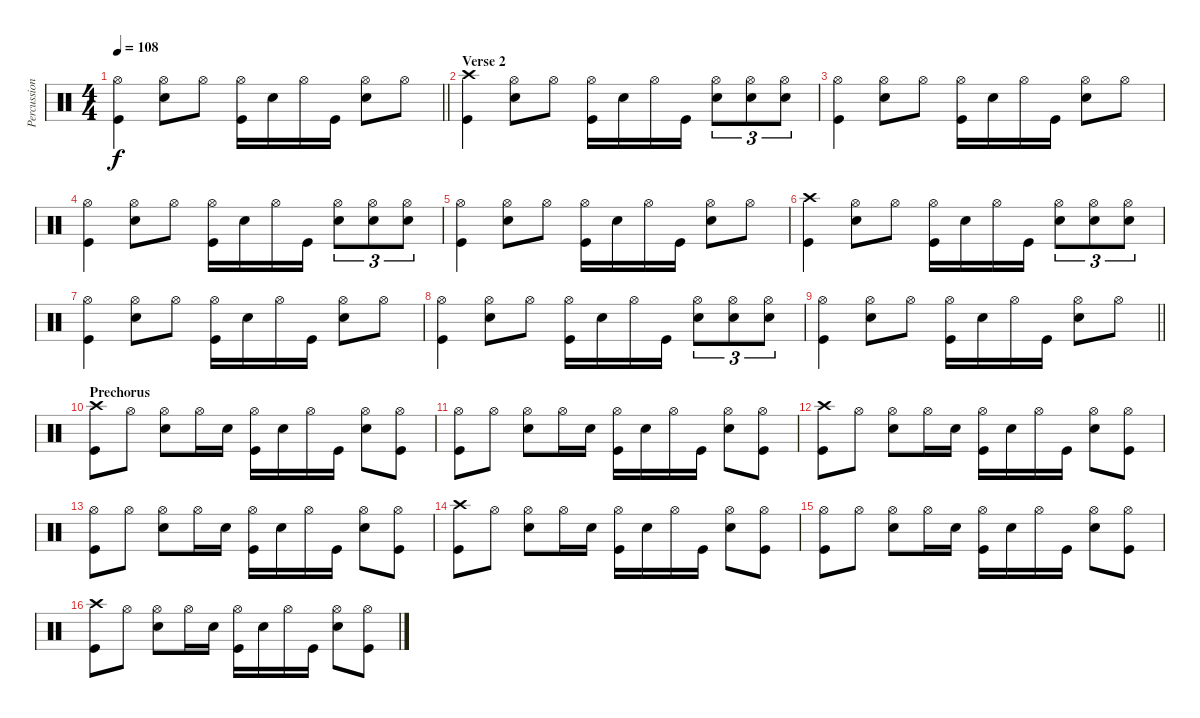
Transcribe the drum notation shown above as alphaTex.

\track ("Percussion" "Percussion") {instrument percussion}
\staff {score}
\articulation defaults
\ts (4 4)
\tempo 108
\clef neutral
\barLineRight lightlight
\ks c
("Hi-Hat (open)" "Kick (hit)").4{dy f} ("Hi-Hat (open)" "Electric Snare (hit)").8 "Hi-Hat (open)".8 ("Hi-Hat (open)" "Kick (hit)").16 "Electric Snare (hit)".16 "Hi-Hat (open)".16 "Kick (hit)".16 ("Hi-Hat (open)" "Electric Snare (hit)").8 "Hi-Hat (open)".8 |
\section ("" "Verse 2")
("Crash high (hit)" "Kick (hit)").4 ("Hi-Hat (open)" "Electric Snare (hit)").8 "Hi-Hat (open)".8 ("Hi-Hat (open)" "Kick (hit)").16 "Electric Snare (hit)".16 "Hi-Hat (open)".16 "Kick (hit)".16 ("Hi-Hat (open)" "Electric Snare (hit)").8{tu (3 2)} ("Hi-Hat (open)" "Electric Snare (hit)").8{tu (3 2)} ("Hi-Hat (open)" "Electric Snare (hit)").8{tu (3 2)} |
("Hi-Hat (open)" "Kick (hit)").4 ("Hi-Hat (open)" "Electric Snare (hit)").8 "Hi-Hat (open)".8 ("Hi-Hat (open)" "Kick (hit)").16 "Electric Snare (hit)".16 "Hi-Hat (open)".16 "Kick (hit)".16 ("Hi-Hat (open)" "Electric Snare (hit)").8 "Hi-Hat (open)".8 |
("Hi-Hat (open)" "Kick (hit)").4 ("Hi-Hat (open)" "Electric Snare (hit)").8 "Hi-Hat (open)".8 ("Hi-Hat (open)" "Kick (hit)").16 "Electric Snare (hit)".16 "Hi-Hat (open)".16 "Kick (hit)".16 ("Hi-Hat (open)" "Electric Snare (hit)").8{tu (3 2)} ("Hi-Hat (open)" "Electric Snare (hit)").8{tu (3 2)} ("Hi-Hat (open)" "Electric Snare (hit)").8{tu (3 2)} |
("Hi-Hat (open)" "Kick (hit)").4 ("Hi-Hat (open)" "Electric Snare (hit)").8 "Hi-Hat (open)".8 ("Hi-Hat (open)" "Kick (hit)").16 "Electric Snare (hit)".16 "Hi-Hat (open)".16 "Kick (hit)".16 ("Hi-Hat (open)" "Electric Snare (hit)").8 "Hi-Hat (open)".8 |
("Crash high (hit)" "Kick (hit)").4 ("Hi-Hat (open)" "Electric Snare (hit)").8 "Hi-Hat (open)".8 ("Hi-Hat (open)" "Kick (hit)").16 "Electric Snare (hit)".16 "Hi-Hat (open)".16 "Kick (hit)".16 ("Hi-Hat (open)" "Electric Snare (hit)").8{tu (3 2)} ("Hi-Hat (open)" "Electric Snare (hit)").8{tu (3 2)} ("Hi-Hat (open)" "Electric Snare (hit)").8{tu (3 2)} |
("Hi-Hat (open)" "Kick (hit)").4 ("Hi-Hat (open)" "Electric Snare (hit)").8 "Hi-Hat (open)".8 ("Hi-Hat (open)" "Kick (hit)").16 "Electric Snare (hit)".16 "Hi-Hat (open)".16 "Kick (hit)".16 ("Hi-Hat (open)" "Electric Snare (hit)").8 "Hi-Hat (open)".8 |
("Hi-Hat (open)" "Kick (hit)").4 ("Hi-Hat (open)" "Electric Snare (hit)").8 "Hi-Hat (open)".8 ("Hi-Hat (open)" "Kick (hit)").16 "Electric Snare (hit)".16 "Hi-Hat (open)".16 "Kick (hit)".16 ("Hi-Hat (open)" "Electric Snare (hit)").8{tu (3 2)} ("Hi-Hat (open)" "Electric Snare (hit)").8{tu (3 2)} ("Hi-Hat (open)" "Electric Snare (hit)").8{tu (3 2)} |
\barLineRight lightlight
("Hi-Hat (open)" "Kick (hit)").4 ("Hi-Hat (open)" "Electric Snare (hit)").8 "Hi-Hat (open)".8 ("Hi-Hat (open)" "Kick (hit)").16 "Electric Snare (hit)".16 "Hi-Hat (open)".16 "Kick (hit)".16 ("Hi-Hat (open)" "Electric Snare (hit)").8 "Hi-Hat (open)".8 |
\section ("" "Prechorus")
("Crash high (hit)" "Kick (hit)").8 "Hi-Hat (open)".8 ("Hi-Hat (open)" "Electric Snare (hit)").8 "Hi-Hat (open)".16 "Electric Snare (hit)".16 ("Hi-Hat (open)" "Kick (hit)").16 "Electric Snare (hit)".16 "Hi-Hat (open)".16 "Kick (hit)".16 ("Hi-Hat (open)" "Electric Snare (hit)").8 ("Hi-Hat (open)" "Kick (hit)").8 |
("Hi-Hat (open)" "Kick (hit)").8 "Hi-Hat (open)".8 ("Hi-Hat (open)" "Electric Snare (hit)").8 "Hi-Hat (open)".16 "Electric Snare (hit)".16 ("Hi-Hat (open)" "Kick (hit)").16 "Electric Snare (hit)".16 "Hi-Hat (open)".16 "Kick (hit)".16 ("Hi-Hat (open)" "Electric Snare (hit)").8 ("Hi-Hat (open)" "Kick (hit)").8 |
("Crash high (hit)" "Kick (hit)").8 "Hi-Hat (open)".8 ("Hi-Hat (open)" "Electric Snare (hit)").8 "Hi-Hat (open)".16 "Electric Snare (hit)".16 ("Hi-Hat (open)" "Kick (hit)").16 "Electric Snare (hit)".16 "Hi-Hat (open)".16 "Kick (hit)".16 ("Hi-Hat (open)" "Electric Snare (hit)").8 ("Hi-Hat (open)" "Kick (hit)").8 |
("Hi-Hat (open)" "Kick (hit)").8 "Hi-Hat (open)".8 ("Hi-Hat (open)" "Electric Snare (hit)").8 "Hi-Hat (open)".16 "Electric Snare (hit)".16 ("Hi-Hat (open)" "Kick (hit)").16 "Electric Snare (hit)".16 "Hi-Hat (open)".16 "Kick (hit)".16 ("Hi-Hat (open)" "Electric Snare (hit)").8 ("Hi-Hat (open)" "Kick (hit)").8 |
("Crash high (hit)" "Kick (hit)").8 "Hi-Hat (open)".8 ("Hi-Hat (open)" "Electric Snare (hit)").8 "Hi-Hat (open)".16 "Electric Snare (hit)".16 ("Hi-Hat (open)" "Kick (hit)").16 "Electric Snare (hit)".16 "Hi-Hat (open)".16 "Kick (hit)".16 ("Hi-Hat (open)" "Electric Snare (hit)").8 ("Hi-Hat (open)" "Kick (hit)").8 |
("Hi-Hat (open)" "Kick (hit)").8 "Hi-Hat (open)".8 ("Hi-Hat (open)" "Electric Snare (hit)").8 "Hi-Hat (open)".16 "Electric Snare (hit)".16 ("Hi-Hat (open)" "Kick (hit)").16 "Electric Snare (hit)".16 "Hi-Hat (open)".16 "Kick (hit)".16 ("Hi-Hat (open)" "Electric Snare (hit)").8 ("Hi-Hat (open)" "Kick (hit)").8 |
("Crash high (hit)" "Kick (hit)").8 "Hi-Hat (open)".8 ("Hi-Hat (open)" "Electric Snare (hit)").8 "Hi-Hat (open)".16 "Electric Snare (hit)".16 ("Hi-Hat (open)" "Kick (hit)").16 "Electric Snare (hit)".16 "Hi-Hat (open)".16 "Kick (hit)".16 ("Hi-Hat (open)" "Electric Snare (hit)").8 ("Hi-Hat (open)" "Kick (hit)").8
